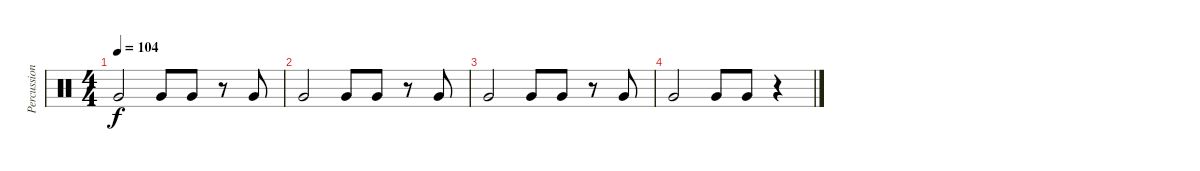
\track ("Percussions" "Percussion") {instrument percussion}
\staff {score}
\articulation defaults
\ts (4 4)
\tempo 104
\clef neutral
\ks c "Very Low Tom (hit)".2{dy f} "Very Low Tom (hit)".8 "Very Low Tom (hit)".8
r.8 "Very Low Tom (hit)".8 |
"Very Low Tom (hit)".2 "Very Low Tom (hit)".8 "Very Low Tom (hit)".8 r.8 "Very Low Tom (hit)".8 |
"Very Low Tom (hit)".2 "Very Low Tom (hit)".8 "Very Low Tom (hit)".8 r.8 "Very Low Tom (hit)".8 |
"Very Low Tom (hit)".2 "Very Low Tom (hit)".8 "Very Low Tom (hit)".8 r.4
